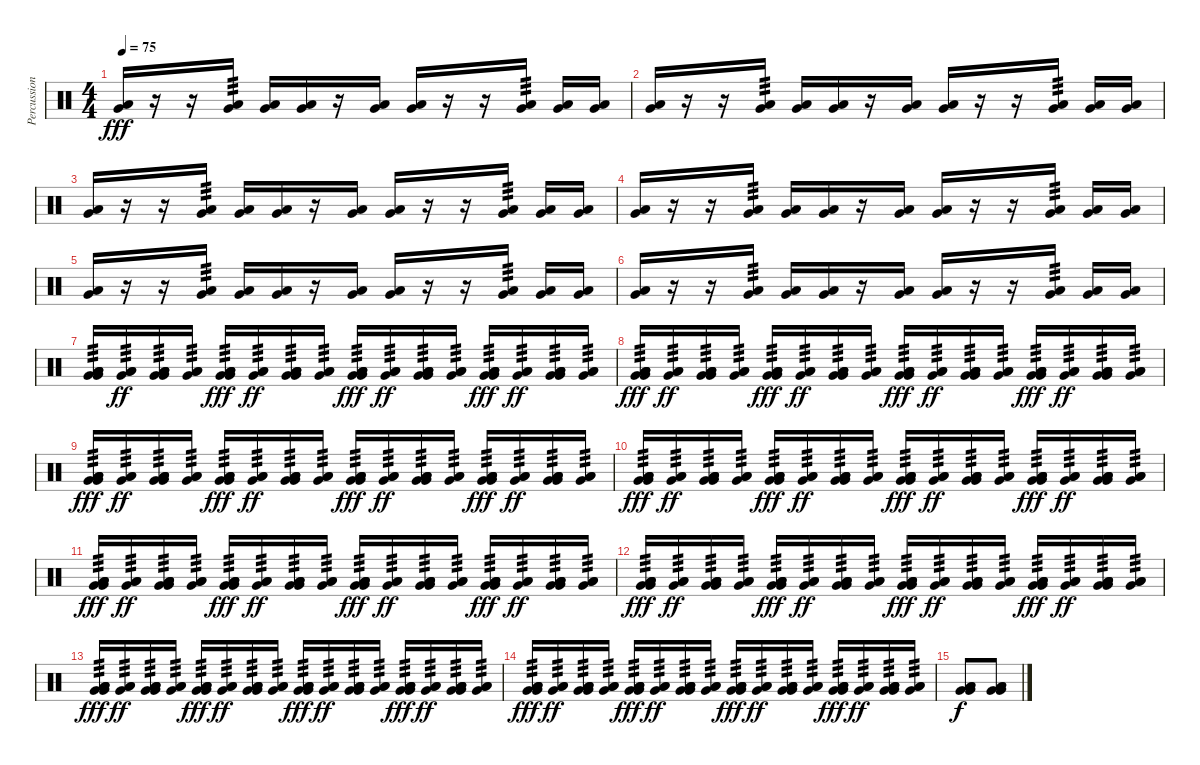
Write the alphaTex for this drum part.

\track ("Percussion" "Percussion") {instrument percussion}
\staff {score}
\articulation defaults
\ts (4 4)
\tempo 75
\clef neutral
\ks c
("Very Low Tom (hit)" "Low Floor Tom (hit)").16{dy fff} r.16 r.16 ("Very Low Tom (hit)" "Low Floor Tom (hit)").16{tp 3} ("Very Low Tom (hit)" "Low Floor Tom (hit)").16 ("Very Low Tom (hit)" "Low Floor Tom (hit)").16 r.16 ("Very Low Tom (hit)" "Low Floor Tom (hit)").16 ("Very Low Tom (hit)" "Low Floor Tom (hit)").16 r.16 r.16 ("Very Low Tom (hit)" "Low Floor Tom (hit)").16{tp 3} ("Very Low Tom (hit)" "Low Floor Tom (hit)").16 ("Very Low Tom (hit)" "Low Floor Tom (hit)").16 |
("Very Low Tom (hit)" "Low Floor Tom (hit)").16 r.16 r.16 ("Very Low Tom (hit)" "Low Floor Tom (hit)").16{tp 3} ("Very Low Tom (hit)" "Low Floor Tom (hit)").16 ("Very Low Tom (hit)" "Low Floor Tom (hit)").16 r.16 ("Very Low Tom (hit)" "Low Floor Tom (hit)").16 ("Very Low Tom (hit)" "Low Floor Tom (hit)").16 r.16 r.16 ("Very Low Tom (hit)" "Low Floor Tom (hit)").16{tp 3} ("Very Low Tom (hit)" "Low Floor Tom (hit)").16 ("Very Low Tom (hit)" "Low Floor Tom (hit)").16 |
("Very Low Tom (hit)" "Low Floor Tom (hit)").16 r.16 r.16 ("Very Low Tom (hit)" "Low Floor Tom (hit)").16{tp 3} ("Very Low Tom (hit)" "Low Floor Tom (hit)").16 ("Very Low Tom (hit)" "Low Floor Tom (hit)").16 r.16 ("Very Low Tom (hit)" "Low Floor Tom (hit)").16 ("Very Low Tom (hit)" "Low Floor Tom (hit)").16 r.16 r.16 ("Very Low Tom (hit)" "Low Floor Tom (hit)").16{tp 3} ("Very Low Tom (hit)" "Low Floor Tom (hit)").16 ("Very Low Tom (hit)" "Low Floor Tom (hit)").16 |
("Very Low Tom (hit)" "Low Floor Tom (hit)").16 r.16 r.16 ("Very Low Tom (hit)" "Low Floor Tom (hit)").16{tp 3} ("Very Low Tom (hit)" "Low Floor Tom (hit)").16 ("Very Low Tom (hit)" "Low Floor Tom (hit)").16 r.16 ("Very Low Tom (hit)" "Low Floor Tom (hit)").16 ("Very Low Tom (hit)" "Low Floor Tom (hit)").16 r.16 r.16 ("Very Low Tom (hit)" "Low Floor Tom (hit)").16{tp 3} ("Very Low Tom (hit)" "Low Floor Tom (hit)").16 ("Very Low Tom (hit)" "Low Floor Tom (hit)").16 |
("Very Low Tom (hit)" "Low Floor Tom (hit)").16 r.16 r.16 ("Very Low Tom (hit)" "Low Floor Tom (hit)").16{tp 3} ("Very Low Tom (hit)" "Low Floor Tom (hit)").16 ("Very Low Tom (hit)" "Low Floor Tom (hit)").16 r.16 ("Very Low Tom (hit)" "Low Floor Tom (hit)").16 ("Very Low Tom (hit)" "Low Floor Tom (hit)").16 r.16 r.16 ("Very Low Tom (hit)" "Low Floor Tom (hit)").16{tp 3} ("Very Low Tom (hit)" "Low Floor Tom (hit)").16 ("Very Low Tom (hit)" "Low Floor Tom (hit)").16 |
("Very Low Tom (hit)" "Low Floor Tom (hit)").16 r.16 r.16 ("Very Low Tom (hit)" "Low Floor Tom (hit)").16{tp 3} ("Very Low Tom (hit)" "Low Floor Tom (hit)").16 ("Very Low Tom (hit)" "Low Floor Tom (hit)").16 r.16 ("Very Low Tom (hit)" "Low Floor Tom (hit)").16 ("Very Low Tom (hit)" "Low Floor Tom (hit)").16 r.16 r.16 ("Very Low Tom (hit)" "Low Floor Tom (hit)").16{tp 3} ("Very Low Tom (hit)" "Low Floor Tom (hit)").16 ("Very Low Tom (hit)" "Low Floor Tom (hit)").16 |
("Very Low Tom (hit)" "Low Floor Tom (hit)" "Low Floor Tom (hit)" "Very Low Tom (hit)" "Low Floor Tom (hit)").16{tp 3} ("Very Low Tom (hit)" "Low Floor Tom (hit)" "Low Floor Tom (hit)").16{tp 3 dy ff} ("Very Low Tom (hit)" "Low Floor Tom (hit)" "Low Floor Tom (hit)" "Very Low Tom (hit)" "Low Floor Tom (hit)").16{tp 3} ("Very Low Tom (hit)" "Low Floor Tom (hit)" "Low Floor Tom (hit)").16{tp 3} ("Very Low Tom (hit)" "Low Floor Tom (hit)" "Low Floor Tom (hit)" "Very Low Tom (hit)" "Low Floor Tom (hit)").16{tp 3 dy fff} ("Very Low Tom (hit)" "Low Floor Tom (hit)" "Low Floor Tom (hit)").16{tp 3 dy ff} ("Very Low Tom (hit)" "Low Floor Tom (hit)" "Low Floor Tom (hit)" "Very Low Tom (hit)" "Low Floor Tom (hit)").16{tp 3} ("Very Low Tom (hit)" "Low Floor Tom (hit)" "Low Floor Tom (hit)").16{tp 3} ("Very Low Tom (hit)" "Low Floor Tom (hit)" "Low Floor Tom (hit)" "Very Low Tom (hit)" "Low Floor Tom (hit)").16{tp 3 dy fff} ("Very Low Tom (hit)" "Low Floor Tom (hit)" "Low Floor Tom (hit)").16{tp 3 dy ff} ("Very Low Tom (hit)" "Low Floor Tom (hit)" "Low Floor Tom (hit)" "Very Low Tom (hit)" "Low Floor Tom (hit)").16{tp 3} ("Very Low Tom (hit)" "Low Floor Tom (hit)" "Low Floor Tom (hit)").16{tp 3} ("Very Low Tom (hit)" "Low Floor Tom (hit)" "Low Floor Tom (hit)" "Very Low Tom (hit)" "Low Floor Tom (hit)").16{tp 3 dy fff} ("Very Low Tom (hit)" "Low Floor Tom (hit)" "Low Floor Tom (hit)").16{tp 3 dy ff} ("Very Low Tom (hit)" "Low Floor Tom (hit)" "Low Floor Tom (hit)" "Very Low Tom (hit)" "Low Floor Tom (hit)").16{tp 3} ("Very Low Tom (hit)" "Low Floor Tom (hit)" "Low Floor Tom (hit)").16{tp 3} |
("Very Low Tom (hit)" "Low Floor Tom (hit)" "Low Floor Tom (hit)" "Very Low Tom (hit)" "Low Floor Tom (hit)").16{tp 3 dy fff} ("Very Low Tom (hit)" "Low Floor Tom (hit)" "Low Floor Tom (hit)").16{tp 3 dy ff} ("Very Low Tom (hit)" "Low Floor Tom (hit)" "Low Floor Tom (hit)" "Very Low Tom (hit)" "Low Floor Tom (hit)").16{tp 3} ("Very Low Tom (hit)" "Low Floor Tom (hit)" "Low Floor Tom (hit)").16{tp 3} ("Very Low Tom (hit)" "Low Floor Tom (hit)" "Low Floor Tom (hit)" "Very Low Tom (hit)" "Low Floor Tom (hit)").16{tp 3 dy fff} ("Very Low Tom (hit)" "Low Floor Tom (hit)" "Low Floor Tom (hit)").16{tp 3 dy ff} ("Very Low Tom (hit)" "Low Floor Tom (hit)" "Low Floor Tom (hit)" "Very Low Tom (hit)" "Low Floor Tom (hit)").16{tp 3} ("Very Low Tom (hit)" "Low Floor Tom (hit)" "Low Floor Tom (hit)").16{tp 3} ("Very Low Tom (hit)" "Low Floor Tom (hit)" "Low Floor Tom (hit)" "Very Low Tom (hit)" "Low Floor Tom (hit)").16{tp 3 dy fff} ("Very Low Tom (hit)" "Low Floor Tom (hit)" "Low Floor Tom (hit)").16{tp 3 dy ff} ("Very Low Tom (hit)" "Low Floor Tom (hit)" "Low Floor Tom (hit)" "Very Low Tom (hit)" "Low Floor Tom (hit)").16{tp 3} ("Very Low Tom (hit)" "Low Floor Tom (hit)" "Low Floor Tom (hit)").16{tp 3} ("Very Low Tom (hit)" "Low Floor Tom (hit)" "Low Floor Tom (hit)" "Very Low Tom (hit)" "Low Floor Tom (hit)").16{tp 3 dy fff} ("Very Low Tom (hit)" "Low Floor Tom (hit)" "Low Floor Tom (hit)").16{tp 3 dy ff} ("Very Low Tom (hit)" "Low Floor Tom (hit)" "Low Floor Tom (hit)" "Very Low Tom (hit)" "Low Floor Tom (hit)").16{tp 3} ("Very Low Tom (hit)" "Low Floor Tom (hit)" "Low Floor Tom (hit)").16{tp 3} |
("Very Low Tom (hit)" "Low Floor Tom (hit)" "Low Floor Tom (hit)" "Very Low Tom (hit)" "Low Floor Tom (hit)").16{tp 3 dy fff} ("Very Low Tom (hit)" "Low Floor Tom (hit)" "Low Floor Tom (hit)").16{tp 3 dy ff} ("Very Low Tom (hit)" "Low Floor Tom (hit)" "Low Floor Tom (hit)" "Very Low Tom (hit)" "Low Floor Tom (hit)").16{tp 3} ("Very Low Tom (hit)" "Low Floor Tom (hit)" "Low Floor Tom (hit)").16{tp 3} ("Very Low Tom (hit)" "Low Floor Tom (hit)" "Low Floor Tom (hit)" "Very Low Tom (hit)" "Low Floor Tom (hit)").16{tp 3 dy fff} ("Very Low Tom (hit)" "Low Floor Tom (hit)" "Low Floor Tom (hit)").16{tp 3 dy ff} ("Very Low Tom (hit)" "Low Floor Tom (hit)" "Low Floor Tom (hit)" "Very Low Tom (hit)" "Low Floor Tom (hit)").16{tp 3} ("Very Low Tom (hit)" "Low Floor Tom (hit)" "Low Floor Tom (hit)").16{tp 3} ("Very Low Tom (hit)" "Low Floor Tom (hit)" "Low Floor Tom (hit)" "Very Low Tom (hit)" "Low Floor Tom (hit)").16{tp 3 dy fff} ("Very Low Tom (hit)" "Low Floor Tom (hit)" "Low Floor Tom (hit)").16{tp 3 dy ff} ("Very Low Tom (hit)" "Low Floor Tom (hit)" "Low Floor Tom (hit)" "Very Low Tom (hit)" "Low Floor Tom (hit)").16{tp 3} ("Very Low Tom (hit)" "Low Floor Tom (hit)" "Low Floor Tom (hit)").16{tp 3} ("Very Low Tom (hit)" "Low Floor Tom (hit)" "Low Floor Tom (hit)" "Very Low Tom (hit)" "Low Floor Tom (hit)").16{tp 3 dy fff} ("Very Low Tom (hit)" "Low Floor Tom (hit)" "Low Floor Tom (hit)").16{tp 3 dy ff} ("Very Low Tom (hit)" "Low Floor Tom (hit)" "Low Floor Tom (hit)" "Very Low Tom (hit)" "Low Floor Tom (hit)").16{tp 3} ("Very Low Tom (hit)" "Low Floor Tom (hit)" "Low Floor Tom (hit)").16{tp 3} |
("Very Low Tom (hit)" "Low Floor Tom (hit)" "Low Floor Tom (hit)" "Very Low Tom (hit)" "Low Floor Tom (hit)").16{tp 3 dy fff} ("Very Low Tom (hit)" "Low Floor Tom (hit)" "Low Floor Tom (hit)").16{tp 3 dy ff} ("Very Low Tom (hit)" "Low Floor Tom (hit)" "Low Floor Tom (hit)" "Very Low Tom (hit)" "Low Floor Tom (hit)").16{tp 3} ("Very Low Tom (hit)" "Low Floor Tom (hit)" "Low Floor Tom (hit)").16{tp 3} ("Very Low Tom (hit)" "Low Floor Tom (hit)" "Low Floor Tom (hit)" "Very Low Tom (hit)" "Low Floor Tom (hit)").16{tp 3 dy fff} ("Very Low Tom (hit)" "Low Floor Tom (hit)" "Low Floor Tom (hit)").16{tp 3 dy ff} ("Very Low Tom (hit)" "Low Floor Tom (hit)" "Low Floor Tom (hit)" "Very Low Tom (hit)" "Low Floor Tom (hit)").16{tp 3} ("Very Low Tom (hit)" "Low Floor Tom (hit)" "Low Floor Tom (hit)").16{tp 3} ("Very Low Tom (hit)" "Low Floor Tom (hit)" "Low Floor Tom (hit)" "Very Low Tom (hit)" "Low Floor Tom (hit)").16{tp 3 dy fff} ("Very Low Tom (hit)" "Low Floor Tom (hit)" "Low Floor Tom (hit)").16{tp 3 dy ff} ("Very Low Tom (hit)" "Low Floor Tom (hit)" "Low Floor Tom (hit)" "Very Low Tom (hit)" "Low Floor Tom (hit)").16{tp 3} ("Very Low Tom (hit)" "Low Floor Tom (hit)" "Low Floor Tom (hit)").16{tp 3} ("Very Low Tom (hit)" "Low Floor Tom (hit)" "Low Floor Tom (hit)" "Very Low Tom (hit)" "Low Floor Tom (hit)").16{tp 3 dy fff} ("Very Low Tom (hit)" "Low Floor Tom (hit)" "Low Floor Tom (hit)").16{tp 3 dy ff} ("Very Low Tom (hit)" "Low Floor Tom (hit)" "Low Floor Tom (hit)" "Very Low Tom (hit)" "Low Floor Tom (hit)").16{tp 3} ("Very Low Tom (hit)" "Low Floor Tom (hit)" "Low Floor Tom (hit)").16{tp 3} |
("Very Low Tom (hit)" "Low Floor Tom (hit)" "Low Floor Tom (hit)" "Very Low Tom (hit)" "Low Floor Tom (hit)").16{tp 3 dy fff} ("Very Low Tom (hit)" "Low Floor Tom (hit)" "Low Floor Tom (hit)").16{tp 3 dy ff} ("Very Low Tom (hit)" "Low Floor Tom (hit)" "Low Floor Tom (hit)" "Very Low Tom (hit)" "Low Floor Tom (hit)").16{tp 3} ("Very Low Tom (hit)" "Low Floor Tom (hit)" "Low Floor Tom (hit)").16{tp 3} ("Very Low Tom (hit)" "Low Floor Tom (hit)" "Low Floor Tom (hit)" "Very Low Tom (hit)" "Low Floor Tom (hit)").16{tp 3 dy fff} ("Very Low Tom (hit)" "Low Floor Tom (hit)" "Low Floor Tom (hit)").16{tp 3 dy ff} ("Very Low Tom (hit)" "Low Floor Tom (hit)" "Low Floor Tom (hit)" "Very Low Tom (hit)" "Low Floor Tom (hit)").16{tp 3} ("Very Low Tom (hit)" "Low Floor Tom (hit)" "Low Floor Tom (hit)").16{tp 3} ("Very Low Tom (hit)" "Low Floor Tom (hit)" "Low Floor Tom (hit)" "Very Low Tom (hit)" "Low Floor Tom (hit)").16{tp 3 dy fff} ("Very Low Tom (hit)" "Low Floor Tom (hit)" "Low Floor Tom (hit)").16{tp 3 dy ff} ("Very Low Tom (hit)" "Low Floor Tom (hit)" "Low Floor Tom (hit)" "Very Low Tom (hit)" "Low Floor Tom (hit)").16{tp 3} ("Very Low Tom (hit)" "Low Floor Tom (hit)" "Low Floor Tom (hit)").16{tp 3} ("Very Low Tom (hit)" "Low Floor Tom (hit)" "Low Floor Tom (hit)" "Very Low Tom (hit)" "Low Floor Tom (hit)").16{tp 3 dy fff} ("Very Low Tom (hit)" "Low Floor Tom (hit)" "Low Floor Tom (hit)").16{tp 3 dy ff} ("Very Low Tom (hit)" "Low Floor Tom (hit)" "Low Floor Tom (hit)" "Very Low Tom (hit)" "Low Floor Tom (hit)").16{tp 3} ("Very Low Tom (hit)" "Low Floor Tom (hit)" "Low Floor Tom (hit)").16{tp 3} |
("Very Low Tom (hit)" "Low Floor Tom (hit)" "Low Floor Tom (hit)" "Very Low Tom (hit)" "Low Floor Tom (hit)").16{tp 3 dy fff} ("Very Low Tom (hit)" "Low Floor Tom (hit)" "Low Floor Tom (hit)").16{tp 3 dy ff} ("Very Low Tom (hit)" "Low Floor Tom (hit)" "Low Floor Tom (hit)" "Very Low Tom (hit)" "Low Floor Tom (hit)").16{tp 3} ("Very Low Tom (hit)" "Low Floor Tom (hit)" "Low Floor Tom (hit)").16{tp 3} ("Very Low Tom (hit)" "Low Floor Tom (hit)" "Low Floor Tom (hit)" "Very Low Tom (hit)" "Low Floor Tom (hit)").16{tp 3 dy fff} ("Very Low Tom (hit)" "Low Floor Tom (hit)" "Low Floor Tom (hit)").16{tp 3 dy ff} ("Very Low Tom (hit)" "Low Floor Tom (hit)" "Low Floor Tom (hit)" "Very Low Tom (hit)" "Low Floor Tom (hit)").16{tp 3} ("Very Low Tom (hit)" "Low Floor Tom (hit)" "Low Floor Tom (hit)").16{tp 3} ("Very Low Tom (hit)" "Low Floor Tom (hit)" "Low Floor Tom (hit)" "Very Low Tom (hit)" "Low Floor Tom (hit)").16{tp 3 dy fff} ("Very Low Tom (hit)" "Low Floor Tom (hit)" "Low Floor Tom (hit)").16{tp 3 dy ff} ("Very Low Tom (hit)" "Low Floor Tom (hit)" "Low Floor Tom (hit)" "Very Low Tom (hit)" "Low Floor Tom (hit)").16{tp 3} ("Very Low Tom (hit)" "Low Floor Tom (hit)" "Low Floor Tom (hit)").16{tp 3} ("Very Low Tom (hit)" "Low Floor Tom (hit)" "Low Floor Tom (hit)" "Very Low Tom (hit)" "Low Floor Tom (hit)").16{tp 3 dy fff} ("Very Low Tom (hit)" "Low Floor Tom (hit)" "Low Floor Tom (hit)").16{tp 3 dy ff} ("Very Low Tom (hit)" "Low Floor Tom (hit)" "Low Floor Tom (hit)" "Very Low Tom (hit)" "Low Floor Tom (hit)").16{tp 3} ("Very Low Tom (hit)" "Low Floor Tom (hit)" "Low Floor Tom (hit)").16{tp 3} |
("Very Low Tom (hit)" "Low Floor Tom (hit)" "Low Floor Tom (hit)" "Very Low Tom (hit)" "Low Floor Tom (hit)").16{tp 3 dy fff} ("Very Low Tom (hit)" "Low Floor Tom (hit)" "Low Floor Tom (hit)").16{tp 3 dy ff} ("Very Low Tom (hit)" "Low Floor Tom (hit)" "Low Floor Tom (hit)" "Very Low Tom (hit)" "Low Floor Tom (hit)").16{tp 3} ("Very Low Tom (hit)" "Low Floor Tom (hit)" "Low Floor Tom (hit)").16{tp 3} ("Very Low Tom (hit)" "Low Floor Tom (hit)" "Low Floor Tom (hit)" "Very Low Tom (hit)" "Low Floor Tom (hit)").16{tp 3 dy fff} ("Very Low Tom (hit)" "Low Floor Tom (hit)" "Low Floor Tom (hit)").16{tp 3 dy ff} ("Very Low Tom (hit)" "Low Floor Tom (hit)" "Low Floor Tom (hit)" "Very Low Tom (hit)" "Low Floor Tom (hit)").16{tp 3} ("Very Low Tom (hit)" "Low Floor Tom (hit)" "Low Floor Tom (hit)").16{tp 3} ("Very Low Tom (hit)" "Low Floor Tom (hit)" "Low Floor Tom (hit)" "Very Low Tom (hit)" "Low Floor Tom (hit)").16{tp 3 dy fff} ("Very Low Tom (hit)" "Low Floor Tom (hit)" "Low Floor Tom (hit)").16{tp 3 dy ff} ("Very Low Tom (hit)" "Low Floor Tom (hit)" "Low Floor Tom (hit)" "Very Low Tom (hit)" "Low Floor Tom (hit)").16{tp 3} ("Very Low Tom (hit)" "Low Floor Tom (hit)" "Low Floor Tom (hit)").16{tp 3} ("Very Low Tom (hit)" "Low Floor Tom (hit)" "Low Floor Tom (hit)" "Very Low Tom (hit)" "Low Floor Tom (hit)").16{tp 3 dy fff} ("Very Low Tom (hit)" "Low Floor Tom (hit)" "Low Floor Tom (hit)").16{tp 3 dy ff} ("Very Low Tom (hit)" "Low Floor Tom (hit)" "Low Floor Tom (hit)" "Very Low Tom (hit)" "Low Floor Tom (hit)").16{tp 3} ("Very Low Tom (hit)" "Low Floor Tom (hit)" "Low Floor Tom (hit)").16{tp 3} |
("Very Low Tom (hit)" "Low Floor Tom (hit)" "Low Floor Tom (hit)" "Very Low Tom (hit)" "Low Floor Tom (hit)").16{tp 3 dy fff} ("Very Low Tom (hit)" "Low Floor Tom (hit)" "Low Floor Tom (hit)").16{tp 3 dy ff} ("Very Low Tom (hit)" "Low Floor Tom (hit)" "Low Floor Tom (hit)" "Very Low Tom (hit)" "Low Floor Tom (hit)").16{tp 3} ("Very Low Tom (hit)" "Low Floor Tom (hit)" "Low Floor Tom (hit)").16{tp 3} ("Very Low Tom (hit)" "Low Floor Tom (hit)" "Low Floor Tom (hit)" "Very Low Tom (hit)" "Low Floor Tom (hit)").16{tp 3 dy fff} ("Very Low Tom (hit)" "Low Floor Tom (hit)" "Low Floor Tom (hit)").16{tp 3 dy ff} ("Very Low Tom (hit)" "Low Floor Tom (hit)" "Low Floor Tom (hit)" "Very Low Tom (hit)" "Low Floor Tom (hit)").16{tp 3} ("Very Low Tom (hit)" "Low Floor Tom (hit)" "Low Floor Tom (hit)").16{tp 3} ("Very Low Tom (hit)" "Low Floor Tom (hit)" "Low Floor Tom (hit)" "Very Low Tom (hit)" "Low Floor Tom (hit)").16{tp 3 dy fff} ("Very Low Tom (hit)" "Low Floor Tom (hit)" "Low Floor Tom (hit)").16{tp 3 dy ff} ("Very Low Tom (hit)" "Low Floor Tom (hit)" "Low Floor Tom (hit)" "Very Low Tom (hit)" "Low Floor Tom (hit)").16{tp 3} ("Very Low Tom (hit)" "Low Floor Tom (hit)" "Low Floor Tom (hit)").16{tp 3} ("Very Low Tom (hit)" "Low Floor Tom (hit)" "Low Floor Tom (hit)" "Very Low Tom (hit)" "Low Floor Tom (hit)").16{tp 3 dy fff} ("Very Low Tom (hit)" "Low Floor Tom (hit)" "Low Floor Tom (hit)").16{tp 3 dy ff} ("Very Low Tom (hit)" "Low Floor Tom (hit)" "Low Floor Tom (hit)" "Very Low Tom (hit)" "Low Floor Tom (hit)").16{tp 3} ("Very Low Tom (hit)" "Low Floor Tom (hit)" "Low Floor Tom (hit)").16{tp 3} |
("Very Low Tom (hit)" "Very Low Tom (hit)" "Low Floor Tom (hit)" "Low Floor Tom (hit)").8{dy f} ("Very Low Tom (hit)" "Very Low Tom (hit)" "Low Floor Tom (hit)" "Low Floor Tom (hit)").8
